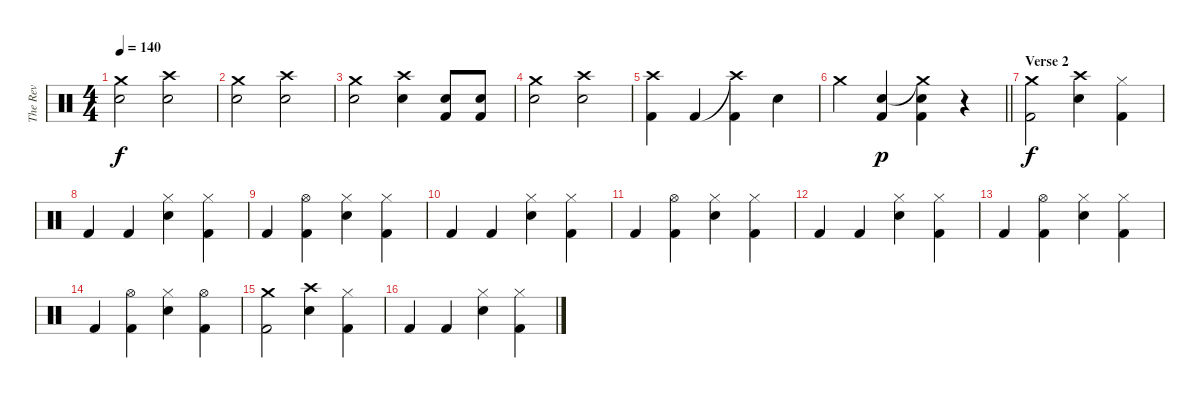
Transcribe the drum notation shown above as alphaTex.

\track ("The Rev" "The Rev") {instrument percussion}
\staff {score}
\articulation defaults
\ts (4 4)
\tempo 140
\clef neutral
\ks c
("Crash medium (hit)" "Snare (hit) 2").2{dy f} ("Crash high (hit)" "Snare (hit) 2").2 |
("Crash medium (hit)" "Snare (hit) 2").2 ("Crash high (hit)" "Snare (hit) 2").2 |
("Crash medium (hit)" "Snare (hit) 2").2 ("Crash high (hit)" "Snare (hit) 2").4 ("Snare (hit) 2" "Kick (hit) 2").8 ("Snare (hit) 2" "Kick (hit) 2").8 |
("Crash medium (hit)" "Snare (hit) 2").2 ("Crash high (hit)" "Snare (hit) 2").2 |
("Crash high (hit)" "Kick (hit) 2").4 "Kick (hit) 2".4 ("Crash high (hit)"{t} "Kick (hit) 2").4 "Snare (hit) 2".4 |
\barLineRight lightlight "Crash medium (hit)".4
("Snare (hit) 2" "Kick (hit) 2").4{dy p} ("Crash medium (hit)"{t} "Snare (hit) 2" "Kick (hit) 2").4 r.4 |
\section ("" "Verse 2")
("Crash medium (hit)" "Kick (hit) 2").2{dy f} ("Crash high (hit)" "Snare (hit) 2").4 ("Hi-Hat (closed)" "Kick (hit) 2").4 |
"Kick (hit) 2".4 "Kick (hit) 2".4 ("Hi-Hat (closed)" "Snare (hit) 2").4 ("Hi-Hat (closed)" "Kick (hit) 2").4 |
"Kick (hit) 2".4 ("Hi-Hat (open)" "Kick (hit) 2").4 ("Hi-Hat (closed)" "Snare (hit) 2").4 ("Hi-Hat (closed)" "Kick (hit) 2").4 |
"Kick (hit) 2".4 "Kick (hit) 2".4 ("Hi-Hat (closed)" "Snare (hit) 2").4 ("Hi-Hat (closed)" "Kick (hit) 2").4 |
"Kick (hit) 2".4 ("Hi-Hat (open)" "Kick (hit) 2").4 ("Hi-Hat (closed)" "Snare (hit) 2").4 ("Hi-Hat (closed)" "Kick (hit) 2").4 |
"Kick (hit) 2".4 "Kick (hit) 2".4 ("Hi-Hat (closed)" "Snare (hit) 2").4 ("Hi-Hat (closed)" "Kick (hit) 2").4 |
"Kick (hit) 2".4 ("Hi-Hat (open)" "Kick (hit) 2").4 ("Hi-Hat (closed)" "Snare (hit) 2").4 ("Hi-Hat (closed)" "Kick (hit) 2").4 |
"Kick (hit) 2".4 ("Hi-Hat (open)" "Kick (hit) 2").4 ("Hi-Hat (closed)" "Snare (hit) 2").4 ("Hi-Hat (open)" "Kick (hit) 2").4 |
("Crash medium (hit)" "Kick (hit) 2").2 ("Crash high (hit)" "Snare (hit) 2").4 ("Hi-Hat (closed)" "Kick (hit) 2").4 |
"Kick (hit) 2".4 "Kick (hit) 2".4 ("Hi-Hat (closed)" "Snare (hit) 2").4 ("Hi-Hat (closed)" "Kick (hit) 2").4
